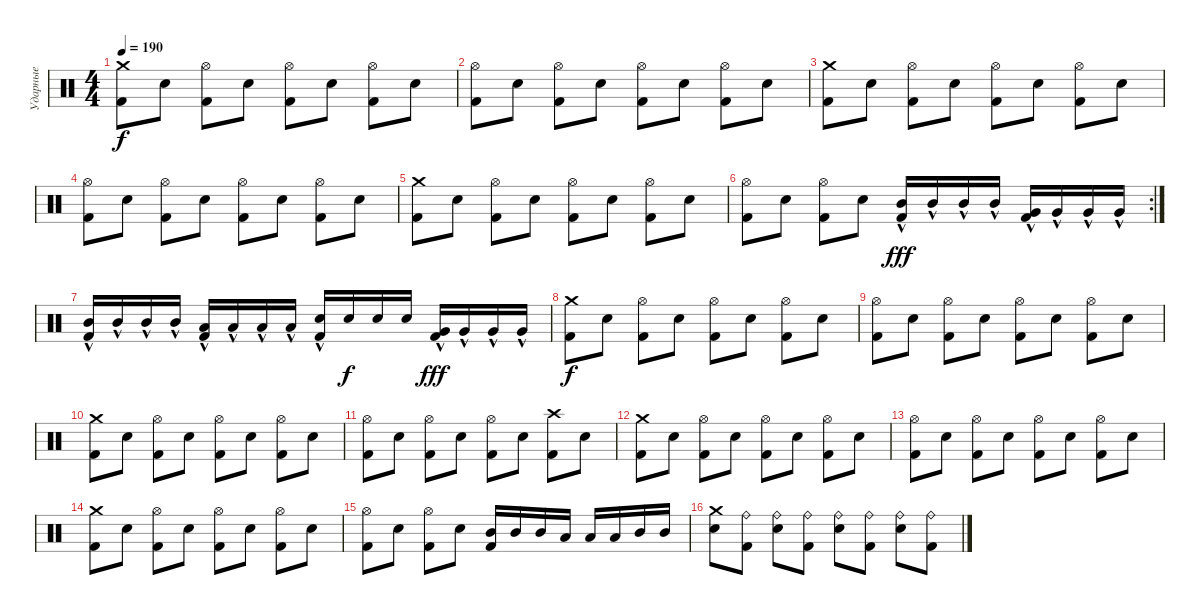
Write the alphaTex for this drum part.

\track ("Ударные" "Ударные") {instrument percussion}
\staff {score}
\articulation defaults
\ts (4 4)
\tempo 190
\clef neutral
\ks c
("Crash medium (hit)" "Kick (hit) 2").8{dy f} "Electric Snare (hit)".8 ("Hi-Hat (open)" "Kick (hit) 2").8 "Electric Snare (hit)".8 ("Hi-Hat (open)" "Kick (hit) 2").8 "Electric Snare (hit)".8 ("Hi-Hat (open)" "Kick (hit) 2").8 "Electric Snare (hit)".8 |
("Hi-Hat (open)" "Kick (hit) 2").8 "Electric Snare (hit)".8 ("Hi-Hat (open)" "Kick (hit) 2").8 "Electric Snare (hit)".8 ("Hi-Hat (open)" "Kick (hit) 2").8 "Electric Snare (hit)".8 ("Hi-Hat (open)" "Kick (hit) 2").8 "Electric Snare (hit)".8 |
("Crash medium (hit)" "Kick (hit) 2").8 "Electric Snare (hit)".8 ("Hi-Hat (open)" "Kick (hit) 2").8 "Electric Snare (hit)".8 ("Hi-Hat (open)" "Kick (hit) 2").8 "Electric Snare (hit)".8 ("Hi-Hat (open)" "Kick (hit) 2").8 "Electric Snare (hit)".8 |
("Hi-Hat (open)" "Kick (hit) 2").8 "Electric Snare (hit)".8 ("Hi-Hat (open)" "Kick (hit) 2").8 "Electric Snare (hit)".8 ("Hi-Hat (open)" "Kick (hit) 2").8 "Electric Snare (hit)".8 ("Hi-Hat (open)" "Kick (hit) 2").8 "Electric Snare (hit)".8 |
("Crash medium (hit)" "Kick (hit) 2").8 "Electric Snare (hit)".8 ("Hi-Hat (open)" "Kick (hit) 2").8 "Electric Snare (hit)".8 ("Hi-Hat (open)" "Kick (hit) 2").8 "Electric Snare (hit)".8 ("Hi-Hat (open)" "Kick (hit) 2").8 "Electric Snare (hit)".8 |
\rc 2
("Hi-Hat (open)" "Kick (hit) 2").8 "Electric Snare (hit)".8 ("Hi-Hat (open)" "Kick (hit) 2").8 "Electric Snare (hit)".8 ("Mid Tom (hit)"{hac} "Kick (hit) 2"{hac}).16{dy fff} "Mid Tom (hit)"{hac}.16 "Mid Tom (hit)"{hac}.16 "Mid Tom (hit)"{hac}.16 ("Very Low Tom (hit)"{hac} "Kick (hit) 2"{hac}).16 "Very Low Tom (hit)"{hac}.16 "Very Low Tom (hit)"{hac}.16 "Very Low Tom (hit)"{hac}.16 |
("Mid Tom (hit)" "Kick (hit) 2"{hac}).16 "Mid Tom (hit)"{hac}.16 "Mid Tom (hit)"{hac}.16 "Mid Tom (hit)"{hac}.16 ("Low Tom (hit)"{hac} "Kick (hit) 2"{hac}).16 "Low Tom (hit)"{hac}.16 "Low Tom (hit)"{hac}.16 "Low Tom (hit)"{hac}.16 ("Electric Snare (hit)" "Kick (hit) 2"{hac}).16 "Electric Snare (hit)".16{dy f} "Electric Snare (hit)".16 "Electric Snare (hit)".16 ("Very Low Tom (hit)"{hac} "Kick (hit) 2"{hac}).16{dy fff} "Very Low Tom (hit)"{hac}.16 "Very Low Tom (hit)"{hac}.16 "Very Low Tom (hit)"{hac}.16 |
("Crash medium (hit)" "Kick (hit) 2").8{dy f} "Electric Snare (hit)".8 ("Hi-Hat (open)" "Kick (hit) 2").8 "Electric Snare (hit)".8 ("Hi-Hat (open)" "Kick (hit) 2").8 "Electric Snare (hit)".8 ("Hi-Hat (open)" "Kick (hit) 2").8 "Electric Snare (hit)".8 |
("Hi-Hat (open)" "Kick (hit) 2").8 "Electric Snare (hit)".8 ("Hi-Hat (open)" "Kick (hit) 2").8 "Electric Snare (hit)".8 ("Hi-Hat (open)" "Kick (hit) 2").8 "Electric Snare (hit)".8 ("Hi-Hat (open)" "Kick (hit) 2").8 "Electric Snare (hit)".8 |
("Crash medium (hit)" "Kick (hit) 2").8 "Electric Snare (hit)".8 ("Hi-Hat (open)" "Kick (hit) 2").8 "Electric Snare (hit)".8 ("Hi-Hat (open)" "Kick (hit) 2").8 "Electric Snare (hit)".8 ("Hi-Hat (open)" "Kick (hit) 2").8 "Electric Snare (hit)".8 |
("Hi-Hat (open)" "Kick (hit) 2").8 "Electric Snare (hit)".8 ("Hi-Hat (open)" "Kick (hit) 2").8 "Electric Snare (hit)".8 ("Hi-Hat (open)" "Kick (hit) 2").8 "Electric Snare (hit)".8 ("Crash high (hit)" "Kick (hit) 2").8 "Electric Snare (hit)".8 |
("Crash medium (hit)" "Kick (hit) 2").8 "Electric Snare (hit)".8 ("Hi-Hat (open)" "Kick (hit) 2").8 "Electric Snare (hit)".8 ("Hi-Hat (open)" "Kick (hit) 2").8 "Electric Snare (hit)".8 ("Hi-Hat (open)" "Kick (hit) 2").8 "Electric Snare (hit)".8 |
("Hi-Hat (open)" "Kick (hit) 2").8 "Electric Snare (hit)".8 ("Hi-Hat (open)" "Kick (hit) 2").8 "Electric Snare (hit)".8 ("Hi-Hat (open)" "Kick (hit) 2").8 "Electric Snare (hit)".8 ("Hi-Hat (open)" "Kick (hit) 2").8 "Electric Snare (hit)".8 |
("Crash medium (hit)" "Kick (hit) 2").8 "Electric Snare (hit)".8 ("Hi-Hat (open)" "Kick (hit) 2").8 "Electric Snare (hit)".8 ("Hi-Hat (open)" "Kick (hit) 2").8 "Electric Snare (hit)".8 ("Hi-Hat (open)" "Kick (hit) 2").8 "Electric Snare (hit)".8 |
("Hi-Hat (open)" "Kick (hit) 2").8 "Electric Snare (hit)".8 ("Hi-Hat (open)" "Kick (hit) 2").8 "Electric Snare (hit)".8 ("Mid Tom (hit)" "Kick (hit) 2").16 "Mid Tom (hit)".16 "Mid Tom (hit)".16 "Low Tom (hit)".16 "Low Tom (hit)".16 "Low Tom (hit)".16 "Mid Tom (hit)".16 "Mid Tom (hit)".16 |
("Crash medium (hit)" "Electric Snare (hit)").8 ("Ride (bell)" "Kick (hit) 2").8 ("Ride (bell)" "Electric Snare (hit)").8 ("Ride (bell)" "Kick (hit) 2").8 ("Ride (bell)" "Electric Snare (hit)").8 ("Ride (bell)" "Kick (hit) 2").8 ("Ride (bell)" "Electric Snare (hit)").8 ("Ride (bell)" "Kick (hit) 2").8
